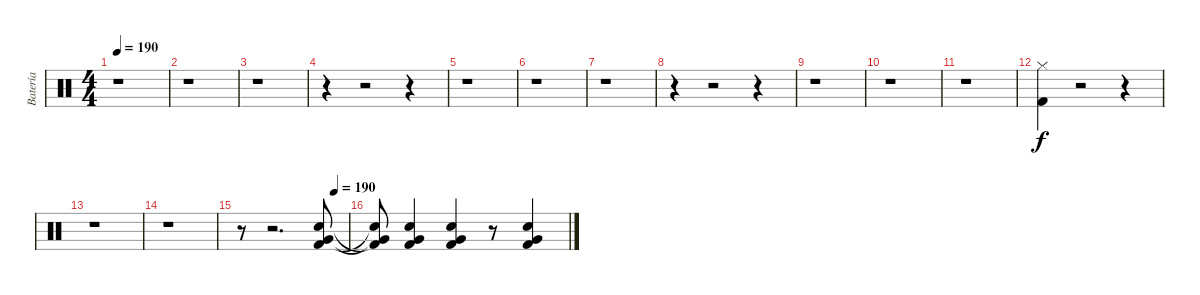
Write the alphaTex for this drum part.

\track ("Batería" "Batería") {instrument percussion}
\staff {score}
\articulation defaults
\ts (4 4)
\tempo 190
\clef neutral
\ks c
r.1{dy f} |
r.1 |
r.1 |
r.4 r.2 r.4 |
r.1 |
r.1 |
r.1 |
r.4 r.2 r.4 |
r.1 |
r.1 |
r.1 |
("Kick (hit) 2" "Hi-Hat (closed)").4 r.2 r.4 |
r.1 |
r.1 |
\tempo (190 0.875)
r.8 r.2{d} ("Electric Snare (hit)" "Very Low Tom (hit)" "Kick (hit) 2").8 |
("Kick (hit) 2"{t} "Very Low Tom (hit)"{t} "Snare (hit)"{t}).8 ("Electric Snare (hit)" "Very Low Tom (hit)" "Kick (hit) 2").4 ("Electric Snare (hit)" "Very Low Tom (hit)" "Kick (hit) 2").4 r.8 ("Electric Snare (hit)" "Very Low Tom (hit)" "Kick (hit) 2").4
